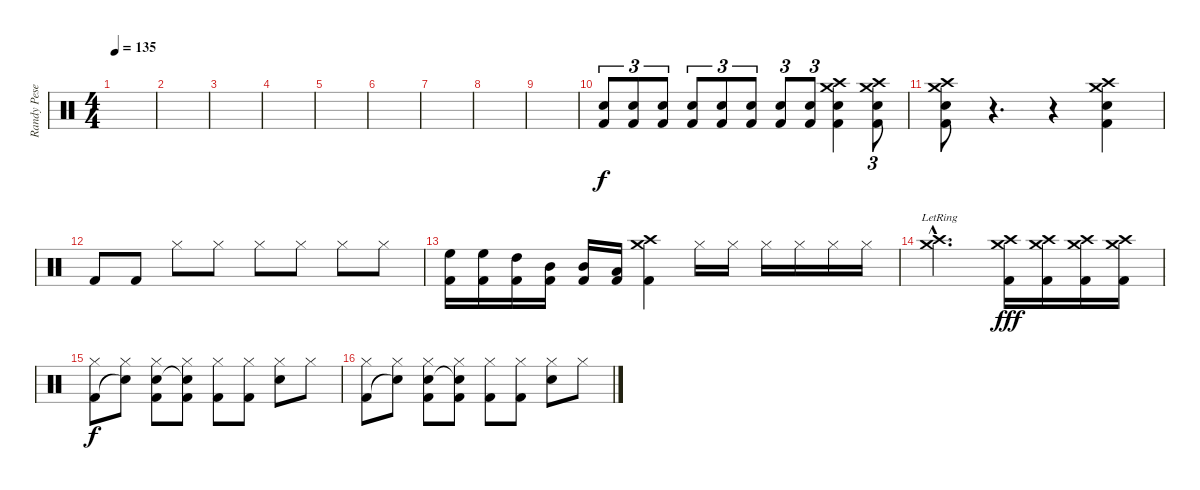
\track ("Randy Pesek" "Randy Pese") {instrument percussion}
\staff {score}
\articulation defaults
\ts (4 4)
\tempo 135
\clef neutral
\ks c
|
|
|
|
|
|
|
|
|
("Snare (hit) 2" "Kick (hit) 2").8{tu (3 2)} ("Snare (hit) 2" "Kick (hit) 2").8{tu (3 2)} ("Snare (hit) 2" "Kick (hit) 2").8{tu (3 2)} ("Snare (hit) 2" "Kick (hit) 2").8{tu (3 2)} ("Snare (hit) 2" "Kick (hit) 2").8{tu (3 2)} ("Snare (hit) 2" "Kick (hit) 2").8{tu (3 2)} ("Snare (hit) 2" "Kick (hit) 2").8{tu (3 2)} ("Snare (hit) 2" "Kick (hit) 2").8{tu (3 2)} ("Snare (hit) 2" "Crash high (hit)" "Crash medium (hit)" "Kick (hit) 2").4 ("Snare (hit) 2" "Crash high (hit)" "Crash medium (hit)" "Kick (hit) 2").8{tu (3 2)} |
("Snare (hit) 2" "Crash high (hit)" "Crash medium (hit)" "Kick (hit) 2").8 r.4{d} r.4 ("Snare (hit) 2" "Crash high (hit)" "Crash medium (hit)" "Kick (hit) 2").4 |
"Kick (hit) 2".8 "Kick (hit) 2".8 "Hi-Hat (closed)".8 "Hi-Hat (closed)".8 "Hi-Hat (closed)".8 "Hi-Hat (closed)".8 "Hi-Hat (closed)".8 "Hi-Hat (closed)".8 |
("Kick (hit) 2" "High Floor Tom (hit)").16 ("Kick (hit) 2" "High Floor Tom (hit)").16 ("Kick (hit) 2" "High Tom (hit)").16 ("Kick (hit) 2" "Mid Tom (hit)").16 ("Kick (hit) 2" "Mid Tom (hit)").16 ("Kick (hit) 2" "Low Tom (hit)").16 ("Crash high (hit)" "Crash medium (hit)" "Kick (hit) 2").4 "Hi-Hat (closed)".16 "Hi-Hat (closed)".16 "Hi-Hat (closed)".16 "Hi-Hat (closed)".16 "Hi-Hat (closed)".16 "Hi-Hat (closed)".16 |
("Crash high (hit)"{hac lr} "Crash medium (hit)"{hac lr}).2{d} ("Crash high (hit)" "Crash medium (hit)" "Kick (hit) 2").16{dy fff} ("Crash high (hit)" "Crash medium (hit)" "Kick (hit) 2").16 ("Crash high (hit)" "Crash medium (hit)" "Kick (hit) 2").16 ("Crash high (hit)" "Crash medium (hit)" "Kick (hit) 2").16 |
("Hi-Hat (closed)" "Kick (hit) 2").8{dy f} ("Hi-Hat (closed)" "Snare (hit)"{t}).8 ("Hi-Hat (closed)" "Snare (hit) 2" "Kick (hit) 2").8 ("Hi-Hat (closed)" "Snare (hit)"{t} "Kick (hit) 2").8 ("Hi-Hat (closed)" "Kick (hit) 2").8 ("Hi-Hat (closed)" "Kick (hit) 2").8 ("Hi-Hat (closed)" "Snare (hit) 2").8 "Hi-Hat (closed)".8 |
("Hi-Hat (closed)" "Kick (hit) 2").8 ("Hi-Hat (closed)" "Snare (hit)"{t}).8 ("Hi-Hat (closed)" "Snare (hit) 2" "Kick (hit) 2").8 ("Hi-Hat (closed)" "Snare (hit)"{t} "Kick (hit) 2").8 ("Hi-Hat (closed)" "Kick (hit) 2").8 ("Hi-Hat (closed)" "Kick (hit) 2").8 ("Hi-Hat (closed)" "Snare (hit) 2").8 "Hi-Hat (closed)".8
